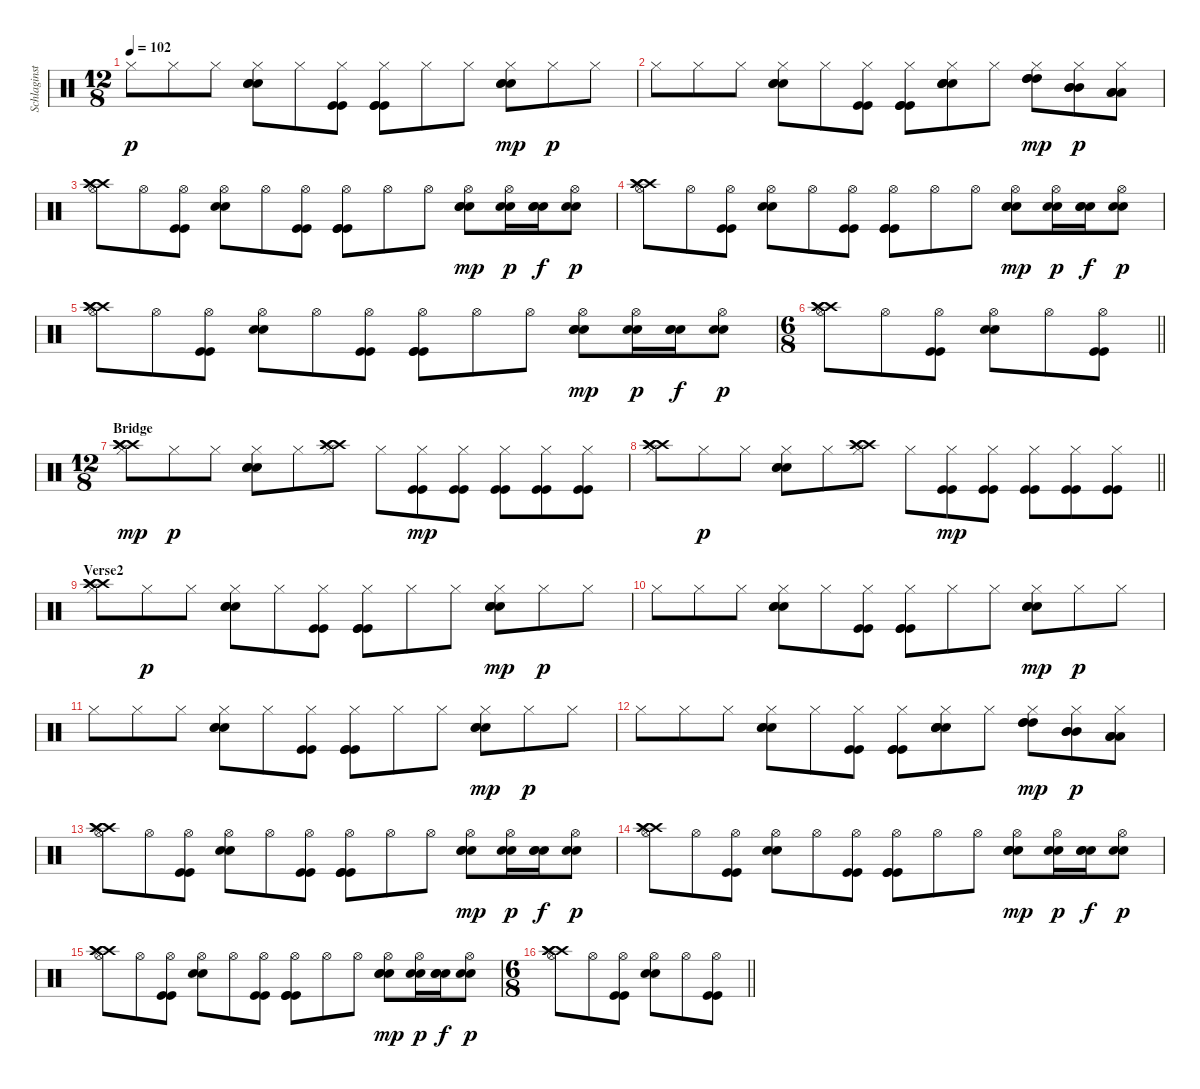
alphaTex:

\track ("Schlaginstrumente - Auswahl" "Schlaginst") {instrument percussion}
\staff {score}
\articulation defaults
\ts (12 8)
\tempo 102
\clef neutral
\ks c "Hi-Hat (closed)".8{dy p} "Hi-Hat (closed)".8 "Hi-Hat (closed)".8
("Hi-Hat (closed)" "Snare (hit) 2" "Snare (hit) 2" "Metronome (bell)").8 "Hi-Hat (closed)".8 ("Hi-Hat (closed)" "Kick (hit)" "Kick (hit)").8 ("Hi-Hat (closed)" "Kick (hit)" "Kick (hit)" "Kick (hit)").8 "Hi-Hat (closed)".8 "Hi-Hat (closed)".8 ("Hi-Hat (closed)" "Snare (hit) 2" "Snare (hit) 2" "Snare (hit) 2").8{dy mp} "Hi-Hat (closed)".8{dy p} "Hi-Hat (closed)".8 |
"Hi-Hat (closed)".8 "Hi-Hat (closed)".8 "Hi-Hat (closed)".8 ("Hi-Hat (closed)" "Snare (hit) 2" "Snare (hit) 2" "Metronome (bell)").8 "Hi-Hat (closed)".8 ("Hi-Hat (closed)" "Kick (hit)" "Kick (hit)").8 ("Hi-Hat (closed)" "Kick (hit)" "Kick (hit)" "Kick (hit)").8 ("Hi-Hat (closed)" "Snare (hit) 2" "Snare (hit) 2" "Snare (hit) 2" "Snare (hit) 2").8 "Hi-Hat (closed)".8 ("Hi-Hat (closed)" "High Tom (hit)" "High Tom (hit)" "High Tom (hit)").8{dy mp} ("Hi-Hat (closed)" "Mid Tom (hit)" "Mid Tom (hit)" "Mid Tom (hit)").8{dy p} ("Hi-Hat (closed)" "Low Floor Tom (hit)" "Low Floor Tom (hit)" "Low Floor Tom (hit)").8 |
("Hi-Hat (open)" "Crash high (hit)" "Crash high (hit)" "Crash high (hit)").8 "Hi-Hat (open)".8 ("Hi-Hat (open)" "Kick (hit)" "Kick (hit)").8 ("Hi-Hat (open)" "Snare (hit) 2" "Snare (hit) 2").8 "Hi-Hat (open)".8 ("Hi-Hat (open)" "Kick (hit)" "Kick (hit)").8 ("Hi-Hat (open)" "Kick (hit)" "Kick (hit)" "Kick (hit)").8 "Hi-Hat (open)".8 "Hi-Hat (open)".8 ("Hi-Hat (open)" "Snare (hit) 2" "Snare (hit) 2" "Snare (hit) 2").8{dy mp} ("Hi-Hat (open)" "Snare (hit) 2" "Snare (hit) 2").16{dy p} ("Snare (hit) 2" "Snare (hit) 2" "Snare (hit) 2").16{dy f} ("Hi-Hat (open)" "Snare (hit) 2" "Snare (hit) 2").8{dy p} |
("Hi-Hat (open)" "Crash high (hit)" "Crash high (hit)" "Crash high (hit)").8 "Hi-Hat (open)".8 ("Hi-Hat (open)" "Kick (hit)" "Kick (hit)").8 ("Hi-Hat (open)" "Snare (hit) 2" "Snare (hit) 2").8 "Hi-Hat (open)".8 ("Hi-Hat (open)" "Kick (hit)" "Kick (hit)").8 ("Hi-Hat (open)" "Kick (hit)" "Kick (hit)" "Kick (hit)").8 "Hi-Hat (open)".8 "Hi-Hat (open)".8 ("Hi-Hat (open)" "Snare (hit) 2" "Snare (hit) 2" "Snare (hit) 2").8{dy mp} ("Hi-Hat (open)" "Snare (hit) 2" "Snare (hit) 2").16{dy p} ("Snare (hit) 2" "Snare (hit) 2" "Snare (hit) 2").16{dy f} ("Hi-Hat (open)" "Snare (hit) 2" "Snare (hit) 2").8{dy p} |
("Hi-Hat (open)" "Crash high (hit)" "Crash high (hit)" "Crash high (hit)").8 "Hi-Hat (open)".8 ("Hi-Hat (open)" "Kick (hit)" "Kick (hit)").8 ("Hi-Hat (open)" "Snare (hit) 2" "Snare (hit) 2").8 "Hi-Hat (open)".8 ("Hi-Hat (open)" "Kick (hit)" "Kick (hit)").8 ("Hi-Hat (open)" "Kick (hit)" "Kick (hit)" "Kick (hit)").8 "Hi-Hat (open)".8 "Hi-Hat (open)".8 ("Hi-Hat (open)" "Snare (hit) 2" "Snare (hit) 2" "Snare (hit) 2").8{dy mp} ("Hi-Hat (open)" "Snare (hit) 2" "Snare (hit) 2").16{dy p} ("Snare (hit) 2" "Snare (hit) 2" "Snare (hit) 2").16{dy f} ("Hi-Hat (open)" "Snare (hit) 2" "Snare (hit) 2").8{dy p} |
\ts (6 8)
\barLineRight lightlight
("Hi-Hat (open)" "Crash high (hit)" "Crash high (hit)" "Crash high (hit)").8 "Hi-Hat (open)".8 ("Hi-Hat (open)" "Kick (hit)" "Kick (hit)").8 ("Hi-Hat (open)" "Snare (hit) 2" "Snare (hit) 2").8 "Hi-Hat (open)".8 ("Hi-Hat (open)" "Kick (hit)" "Kick (hit)").8 |
\ts (12 8)
\section ("" "Bridge")
("Hi-Hat (closed)" "Crash high (hit)" "Crash high (hit)" "Crash high (hit)").8{dy mp} "Hi-Hat (closed)".8{dy p} "Hi-Hat (closed)".8 ("Hi-Hat (closed)" "Snare (hit) 2" "Snare (hit) 2" "Metronome (bell)").8 "Hi-Hat (closed)".8 ("Hi-Hat (closed)" "Crash high (hit)" "Crash high (hit)" "Crash high (hit)").8 "Hi-Hat (closed)".8 ("Hi-Hat (closed)" "Kick (hit)" "Kick (hit)").8{dy mp} ("Hi-Hat (closed)" "Kick (hit)" "Kick (hit)").8 ("Hi-Hat (closed)" "Kick (hit)" "Kick (hit)").8 ("Hi-Hat (closed)" "Kick (hit)" "Kick (hit)").8 ("Hi-Hat (closed)" "Kick (hit)" "Kick (hit)").8 |
\barLineRight lightlight
("Hi-Hat (closed)" "Crash high (hit)" "Crash high (hit)" "Crash high (hit)").8 "Hi-Hat (closed)".8{dy p} "Hi-Hat (closed)".8 ("Hi-Hat (closed)" "Snare (hit) 2" "Snare (hit) 2" "Metronome (bell)").8 "Hi-Hat (closed)".8 ("Hi-Hat (closed)" "Crash high (hit)" "Crash high (hit)" "Crash high (hit)").8 "Hi-Hat (closed)".8 ("Hi-Hat (closed)" "Kick (hit)" "Kick (hit)").8{dy mp} ("Hi-Hat (closed)" "Kick (hit)" "Kick (hit)").8 ("Hi-Hat (closed)" "Kick (hit)" "Kick (hit)").8 ("Hi-Hat (closed)" "Kick (hit)" "Kick (hit)").8 ("Hi-Hat (closed)" "Kick (hit)" "Kick (hit)").8 |
\section ("" "Verse2")
("Hi-Hat (closed)" "Crash high (hit)" "Crash high (hit)" "Crash high (hit)").8 "Hi-Hat (closed)".8{dy p} "Hi-Hat (closed)".8 ("Hi-Hat (closed)" "Snare (hit) 2" "Snare (hit) 2" "Metronome (bell)").8 "Hi-Hat (closed)".8 ("Hi-Hat (closed)" "Kick (hit)" "Kick (hit)").8 ("Hi-Hat (closed)" "Kick (hit)" "Kick (hit)" "Kick (hit)").8 "Hi-Hat (closed)".8 "Hi-Hat (closed)".8 ("Hi-Hat (closed)" "Snare (hit) 2" "Snare (hit) 2" "Snare (hit) 2").8{dy mp} "Hi-Hat (closed)".8{dy p} "Hi-Hat (closed)".8 |
"Hi-Hat (closed)".8 "Hi-Hat (closed)".8 "Hi-Hat (closed)".8 ("Hi-Hat (closed)" "Snare (hit) 2" "Snare (hit) 2" "Metronome (bell)").8 "Hi-Hat (closed)".8 ("Hi-Hat (closed)" "Kick (hit)" "Kick (hit)").8 ("Hi-Hat (closed)" "Kick (hit)" "Kick (hit)" "Kick (hit)").8 "Hi-Hat (closed)".8 "Hi-Hat (closed)".8 ("Hi-Hat (closed)" "Snare (hit) 2" "Snare (hit) 2" "Snare (hit) 2").8{dy mp} "Hi-Hat (closed)".8{dy p} "Hi-Hat (closed)".8 |
"Hi-Hat (closed)".8 "Hi-Hat (closed)".8 "Hi-Hat (closed)".8 ("Hi-Hat (closed)" "Snare (hit) 2" "Snare (hit) 2" "Metronome (bell)").8 "Hi-Hat (closed)".8 ("Hi-Hat (closed)" "Kick (hit)" "Kick (hit)").8 ("Hi-Hat (closed)" "Kick (hit)" "Kick (hit)" "Kick (hit)").8 "Hi-Hat (closed)".8 "Hi-Hat (closed)".8 ("Hi-Hat (closed)" "Snare (hit) 2" "Snare (hit) 2" "Snare (hit) 2").8{dy mp} "Hi-Hat (closed)".8{dy p} "Hi-Hat (closed)".8 |
"Hi-Hat (closed)".8 "Hi-Hat (closed)".8 "Hi-Hat (closed)".8 ("Hi-Hat (closed)" "Snare (hit) 2" "Snare (hit) 2" "Metronome (bell)").8 "Hi-Hat (closed)".8 ("Hi-Hat (closed)" "Kick (hit)" "Kick (hit)").8 ("Hi-Hat (closed)" "Kick (hit)" "Kick (hit)" "Kick (hit)").8 ("Hi-Hat (closed)" "Snare (hit) 2" "Snare (hit) 2" "Snare (hit) 2" "Snare (hit) 2").8 "Hi-Hat (closed)".8 ("Hi-Hat (closed)" "High Tom (hit)" "High Tom (hit)" "High Tom (hit)").8{dy mp} ("Hi-Hat (closed)" "Mid Tom (hit)" "Mid Tom (hit)" "Mid Tom (hit)").8{dy p} ("Hi-Hat (closed)" "Low Floor Tom (hit)" "Low Floor Tom (hit)" "Low Floor Tom (hit)").8 |
("Hi-Hat (open)" "Crash high (hit)" "Crash high (hit)" "Crash high (hit)").8 "Hi-Hat (open)".8 ("Hi-Hat (open)" "Kick (hit)" "Kick (hit)").8 ("Hi-Hat (open)" "Snare (hit) 2" "Snare (hit) 2").8 "Hi-Hat (open)".8 ("Hi-Hat (open)" "Kick (hit)" "Kick (hit)").8 ("Hi-Hat (open)" "Kick (hit)" "Kick (hit)" "Kick (hit)").8 "Hi-Hat (open)".8 "Hi-Hat (open)".8 ("Hi-Hat (open)" "Snare (hit) 2" "Snare (hit) 2" "Snare (hit) 2").8{dy mp} ("Hi-Hat (open)" "Snare (hit) 2" "Snare (hit) 2").16{dy p} ("Snare (hit) 2" "Snare (hit) 2" "Snare (hit) 2").16{dy f} ("Hi-Hat (open)" "Snare (hit) 2" "Snare (hit) 2").8{dy p} |
("Hi-Hat (open)" "Crash high (hit)" "Crash high (hit)" "Crash high (hit)").8 "Hi-Hat (open)".8 ("Hi-Hat (open)" "Kick (hit)" "Kick (hit)").8 ("Hi-Hat (open)" "Snare (hit) 2" "Snare (hit) 2").8 "Hi-Hat (open)".8 ("Hi-Hat (open)" "Kick (hit)" "Kick (hit)").8 ("Hi-Hat (open)" "Kick (hit)" "Kick (hit)" "Kick (hit)").8 "Hi-Hat (open)".8 "Hi-Hat (open)".8 ("Hi-Hat (open)" "Snare (hit) 2" "Snare (hit) 2" "Snare (hit) 2").8{dy mp} ("Hi-Hat (open)" "Snare (hit) 2" "Snare (hit) 2").16{dy p} ("Snare (hit) 2" "Snare (hit) 2" "Snare (hit) 2").16{dy f} ("Hi-Hat (open)" "Snare (hit) 2" "Snare (hit) 2").8{dy p} |
("Hi-Hat (open)" "Crash high (hit)" "Crash high (hit)" "Crash high (hit)").8 "Hi-Hat (open)".8 ("Hi-Hat (open)" "Kick (hit)" "Kick (hit)").8 ("Hi-Hat (open)" "Snare (hit) 2" "Snare (hit) 2").8 "Hi-Hat (open)".8 ("Hi-Hat (open)" "Kick (hit)" "Kick (hit)").8 ("Hi-Hat (open)" "Kick (hit)" "Kick (hit)" "Kick (hit)").8 "Hi-Hat (open)".8 "Hi-Hat (open)".8 ("Hi-Hat (open)" "Snare (hit) 2" "Snare (hit) 2" "Snare (hit) 2").8{dy mp} ("Hi-Hat (open)" "Snare (hit) 2" "Snare (hit) 2").16{dy p} ("Snare (hit) 2" "Snare (hit) 2" "Snare (hit) 2").16{dy f} ("Hi-Hat (open)" "Snare (hit) 2" "Snare (hit) 2").8{dy p} |
\ts (6 8)
\barLineRight lightlight
("Hi-Hat (open)" "Crash high (hit)" "Crash high (hit)" "Crash high (hit)").8 "Hi-Hat (open)".8 ("Hi-Hat (open)" "Kick (hit)" "Kick (hit)").8 ("Hi-Hat (open)" "Snare (hit) 2" "Snare (hit) 2").8 "Hi-Hat (open)".8 ("Hi-Hat (open)" "Kick (hit)" "Kick (hit)").8
